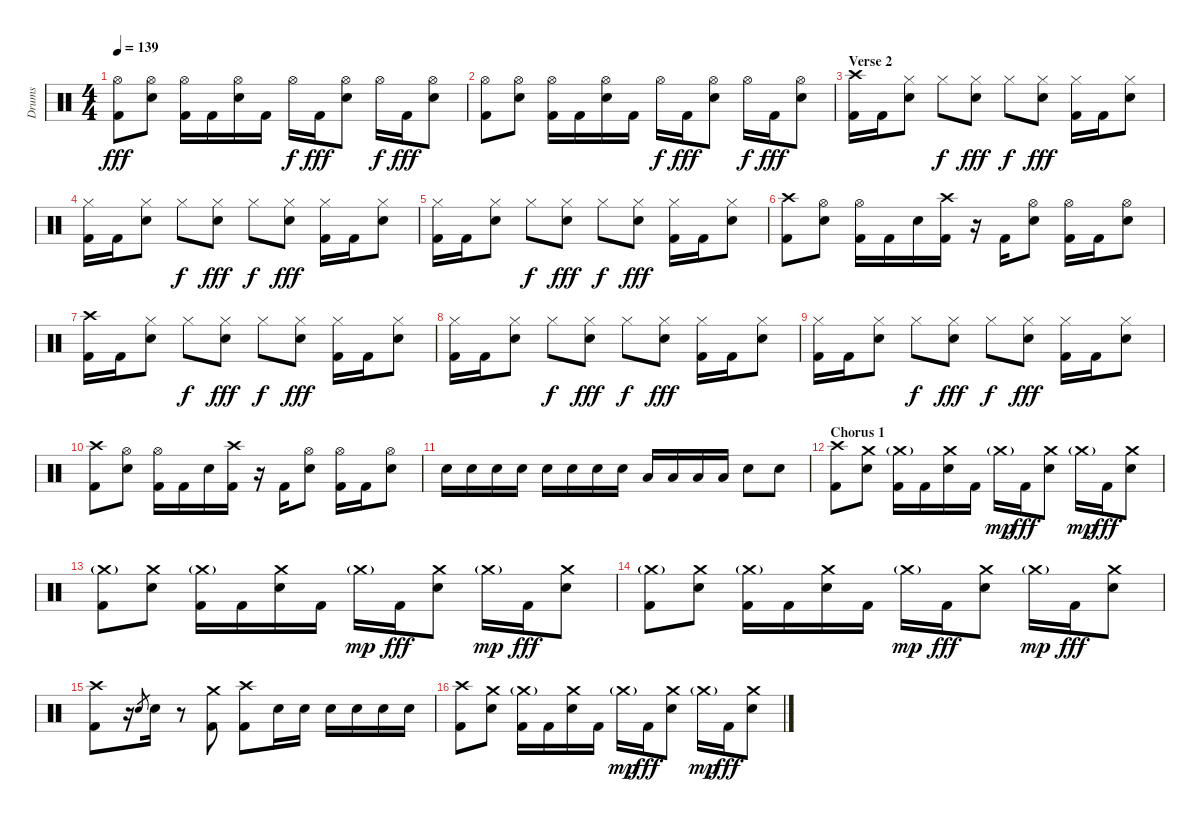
\track ("Drums" "Drums") {instrument percussion}
\staff {score}
\articulation defaults
\ts (4 4)
\tempo 139
\clef neutral
\ks c
("Hi-Hat (open)" "Kick (hit) 2").8{dy fff} ("Hi-Hat (open)" "Electric Snare (hit)").8 ("Hi-Hat (open)" "Kick (hit) 2").16 "Kick (hit) 2".16 ("Hi-Hat (open)" "Electric Snare (hit)").16 "Kick (hit) 2".16 "Hi-Hat (open)".16{dy f} "Kick (hit) 2".16{dy fff} ("Hi-Hat (open)" "Electric Snare (hit)").8 "Hi-Hat (open)".16{dy f} "Kick (hit) 2".16{dy fff} ("Hi-Hat (open)" "Electric Snare (hit)").8 |
("Hi-Hat (open)" "Kick (hit) 2").8 ("Hi-Hat (open)" "Electric Snare (hit)").8 ("Hi-Hat (open)" "Kick (hit) 2").16 "Kick (hit) 2".16 ("Hi-Hat (open)" "Electric Snare (hit)").16 "Kick (hit) 2".16 "Hi-Hat (open)".16{dy f} "Kick (hit) 2".16{dy fff} ("Hi-Hat (open)" "Electric Snare (hit)").8 "Hi-Hat (open)".16{dy f} "Kick (hit) 2".16{dy fff} ("Hi-Hat (open)" "Electric Snare (hit)").8 |
\section ("" "Verse 2")
("Crash high (hit)" "Kick (hit) 2").16 "Kick (hit) 2".16 ("Hi-Hat (closed)" "Electric Snare (hit)").8 "Hi-Hat (closed)".8{dy f} ("Hi-Hat (closed)" "Electric Snare (hit)").8{dy fff} "Hi-Hat (closed)".8{dy f} ("Hi-Hat (closed)" "Electric Snare (hit)").8{dy fff} ("Hi-Hat (closed)" "Kick (hit) 2").16 "Kick (hit) 2".16 ("Hi-Hat (closed)" "Electric Snare (hit)").8 |
("Hi-Hat (closed)" "Kick (hit) 2").16 "Kick (hit) 2".16 ("Hi-Hat (closed)" "Electric Snare (hit)").8 "Hi-Hat (closed)".8{dy f} ("Hi-Hat (closed)" "Electric Snare (hit)").8{dy fff} "Hi-Hat (closed)".8{dy f} ("Hi-Hat (closed)" "Electric Snare (hit)").8{dy fff} ("Hi-Hat (closed)" "Kick (hit) 2").16 "Kick (hit) 2".16 ("Hi-Hat (closed)" "Electric Snare (hit)").8 |
("Hi-Hat (closed)" "Kick (hit) 2").16 "Kick (hit) 2".16 ("Hi-Hat (closed)" "Electric Snare (hit)").8 "Hi-Hat (closed)".8{dy f} ("Hi-Hat (closed)" "Electric Snare (hit)").8{dy fff} "Hi-Hat (closed)".8{dy f} ("Hi-Hat (closed)" "Electric Snare (hit)").8{dy fff} ("Hi-Hat (closed)" "Kick (hit) 2").16 "Kick (hit) 2".16 ("Hi-Hat (closed)" "Electric Snare (hit)").8 |
("Crash high (hit)" "Kick (hit) 2").8 ("Hi-Hat (open)" "Electric Snare (hit)").8 ("Hi-Hat (open)" "Kick (hit) 2").16 "Kick (hit) 2".16 "Electric Snare (hit)".16 ("Crash high (hit)" "Kick (hit) 2").16 r.16 "Kick (hit) 2".16 ("Hi-Hat (open)" "Electric Snare (hit)").8 ("Hi-Hat (open)" "Kick (hit) 2").16 "Kick (hit) 2".16 ("Hi-Hat (open)" "Electric Snare (hit)").8 |
("Crash high (hit)" "Kick (hit) 2").16 "Kick (hit) 2".16 ("Hi-Hat (closed)" "Electric Snare (hit)").8 "Hi-Hat (closed)".8{dy f} ("Hi-Hat (closed)" "Electric Snare (hit)").8{dy fff} "Hi-Hat (closed)".8{dy f} ("Hi-Hat (closed)" "Electric Snare (hit)").8{dy fff} ("Hi-Hat (closed)" "Kick (hit) 2").16 "Kick (hit) 2".16 ("Hi-Hat (closed)" "Electric Snare (hit)").8 |
("Hi-Hat (closed)" "Kick (hit) 2").16 "Kick (hit) 2".16 ("Hi-Hat (closed)" "Electric Snare (hit)").8 "Hi-Hat (closed)".8{dy f} ("Hi-Hat (closed)" "Electric Snare (hit)").8{dy fff} "Hi-Hat (closed)".8{dy f} ("Hi-Hat (closed)" "Electric Snare (hit)").8{dy fff} ("Hi-Hat (closed)" "Kick (hit) 2").16 "Kick (hit) 2".16 ("Hi-Hat (closed)" "Electric Snare (hit)").8 |
("Hi-Hat (closed)" "Kick (hit) 2").16 "Kick (hit) 2".16 ("Hi-Hat (closed)" "Electric Snare (hit)").8 "Hi-Hat (closed)".8{dy f} ("Hi-Hat (closed)" "Electric Snare (hit)").8{dy fff} "Hi-Hat (closed)".8{dy f} ("Hi-Hat (closed)" "Electric Snare (hit)").8{dy fff} ("Hi-Hat (closed)" "Kick (hit) 2").16 "Kick (hit) 2".16 ("Hi-Hat (closed)" "Electric Snare (hit)").8 |
("Crash high (hit)" "Kick (hit) 2").8 ("Hi-Hat (open)" "Electric Snare (hit)").8 ("Hi-Hat (open)" "Kick (hit) 2").16 "Kick (hit) 2".16 "Electric Snare (hit)".16 ("Crash high (hit)" "Kick (hit) 2").16 r.16 "Kick (hit) 2".16 ("Hi-Hat (open)" "Electric Snare (hit)").8 ("Hi-Hat (open)" "Kick (hit) 2").16 "Kick (hit) 2".16 ("Hi-Hat (open)" "Electric Snare (hit)").8 |
"Electric Snare (hit)".16 "Electric Snare (hit)".16 "Electric Snare (hit)".16 "Electric Snare (hit)".16 "Electric Snare (hit)".16 "Electric Snare (hit)".16 "Electric Snare (hit)".16 "Electric Snare (hit)".16 "Low Tom (hit)".16 "Low Tom (hit)".16 "Low Tom (hit)".16 "Low Tom (hit)".16 "Electric Snare (hit)".8 "Electric Snare (hit)".8 |
\section ("" "Chorus 1")
("Crash high (hit)" "Kick (hit) 2").8 ("Crash medium (hit)" "Electric Snare (hit)").8 ("Crash medium (hit)"{g} "Kick (hit) 2").16 "Kick (hit) 2".16 ("Crash medium (hit)" "Electric Snare (hit)").16 "Kick (hit) 2".16 "Crash medium (hit)"{g}.16{dy mp} "Kick (hit) 2".16{dy fff} ("Crash medium (hit)" "Electric Snare (hit)").8 "Crash medium (hit)"{g}.16{dy mp} "Kick (hit) 2".16{dy fff} ("Crash medium (hit)" "Electric Snare (hit)").8 |
("Crash medium (hit)"{g} "Kick (hit) 2").8 ("Crash medium (hit)" "Electric Snare (hit)").8 ("Crash medium (hit)"{g} "Kick (hit) 2").16 "Kick (hit) 2".16 ("Crash medium (hit)" "Electric Snare (hit)").16 "Kick (hit) 2".16 "Crash medium (hit)"{g}.16{dy mp} "Kick (hit) 2".16{dy fff} ("Crash medium (hit)" "Electric Snare (hit)").8 "Crash medium (hit)"{g}.16{dy mp} "Kick (hit) 2".16{dy fff} ("Crash medium (hit)" "Electric Snare (hit)").8 |
("Crash medium (hit)"{g} "Kick (hit) 2").8 ("Crash medium (hit)" "Electric Snare (hit)").8 ("Crash medium (hit)"{g} "Kick (hit) 2").16 "Kick (hit) 2".16 ("Crash medium (hit)" "Electric Snare (hit)").16 "Kick (hit) 2".16 "Crash medium (hit)"{g}.16{dy mp} "Kick (hit) 2".16{dy fff} ("Crash medium (hit)" "Electric Snare (hit)").8 "Crash medium (hit)"{g}.16{dy mp} "Kick (hit) 2".16{dy fff} ("Crash medium (hit)" "Electric Snare (hit)").8 |
("Crash high (hit)" "Kick (hit) 2").8 r.16 "Electric Snare (hit)".8{gr} "Electric Snare (hit)".16 r.8 ("Crash medium (hit)" "Kick (hit) 2").8 ("Crash high (hit)" "Kick (hit) 2").8 "Electric Snare (hit)".16 "Electric Snare (hit)".16 "Electric Snare (hit)".16 "Electric Snare (hit)".16 "Electric Snare (hit)".16 "Electric Snare (hit)".16 |
("Crash high (hit)" "Kick (hit) 2").8 ("Crash medium (hit)" "Electric Snare (hit)").8 ("Crash medium (hit)"{g} "Kick (hit) 2").16 "Kick (hit) 2".16 ("Crash medium (hit)" "Electric Snare (hit)").16 "Kick (hit) 2".16 "Crash medium (hit)"{g}.16{dy mp} "Kick (hit) 2".16{dy fff} ("Crash medium (hit)" "Electric Snare (hit)").8 "Crash medium (hit)"{g}.16{dy mp} "Kick (hit) 2".16{dy fff} ("Crash medium (hit)" "Electric Snare (hit)").8
